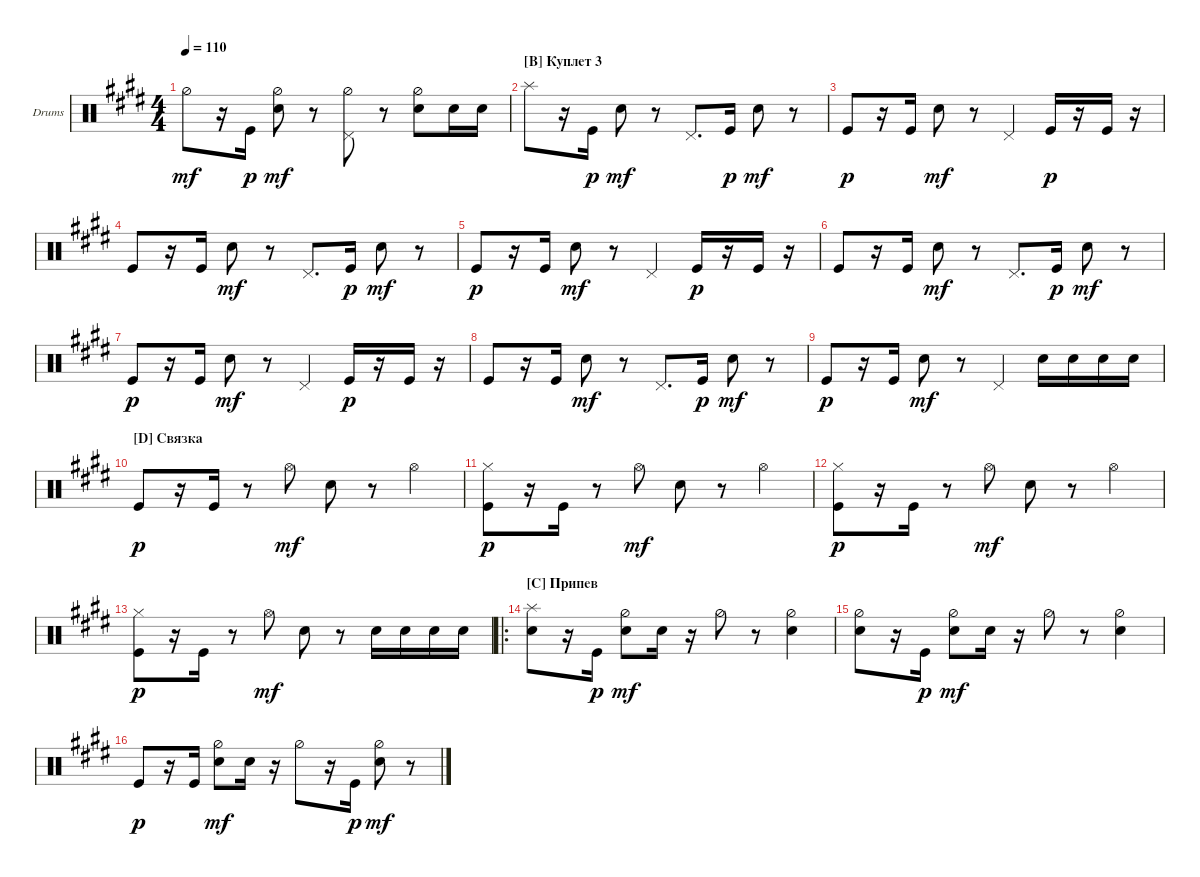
\defaultSystemsLayout 4
\bracketExtendMode groupsimilarinstruments
\firstSystemTrackNameOrientation horizontal
\otherSystemsTrackNameOrientation horizontal
\track ("Drumkit" "Drums") {instrument percussion}
\staff {score}
\articulation defaults
\ts (4 4)
\tempo 110
\clef neutral
\ks c#minor "Hi-Hat (half)".8{dy mf}
r.16 "Kick (hit)".16{dy p} ("Snare (hit) 2" "Hi-Hat (half)").8{dy mf} r.8 ("Pedal Hi-Hat (hit)" "Hi-Hat (half)").8 r.8 ("Snare (hit) 2" "Hi-Hat (half)").8 "Snare (hit) 2".16 "Snare (hit) 2".16 |
\section ("B" "Куплет 3")
"Splash (hit)".8 r.16 "Kick (hit)".16{dy p} "Snare (hit) 2".8{dy mf} r.8 "Pedal Hi-Hat (hit)".8{d} "Kick (hit)".16{dy p} "Snare (hit) 2".8{dy mf} r.8 |
"Kick (hit)".8{dy p} r.16 "Kick (hit)".16 "Snare (hit) 2".8{dy mf} r.8 "Pedal Hi-Hat (hit)".4 "Kick (hit)".16{dy p} r.16 "Kick (hit)".16 r.16 |
"Kick (hit)".8 r.16 "Kick (hit)".16 "Snare (hit) 2".8{dy mf} r.8 "Pedal Hi-Hat (hit)".8{d} "Kick (hit)".16{dy p} "Snare (hit) 2".8{dy mf} r.8 |
"Kick (hit)".8{dy p} r.16 "Kick (hit)".16 "Snare (hit) 2".8{dy mf} r.8 "Pedal Hi-Hat (hit)".4 "Kick (hit)".16{dy p} r.16 "Kick (hit)".16 r.16 |
"Kick (hit)".8 r.16 "Kick (hit)".16 "Snare (hit) 2".8{dy mf} r.8 "Pedal Hi-Hat (hit)".8{d} "Kick (hit)".16{dy p} "Snare (hit) 2".8{dy mf} r.8 |
"Kick (hit)".8{dy p} r.16 "Kick (hit)".16 "Snare (hit) 2".8{dy mf} r.8 "Pedal Hi-Hat (hit)".4 "Kick (hit)".16{dy p} r.16 "Kick (hit)".16 r.16 |
"Kick (hit)".8 r.16 "Kick (hit)".16 "Snare (hit) 2".8{dy mf} r.8 "Pedal Hi-Hat (hit)".8{d} "Kick (hit)".16{dy p} "Snare (hit) 2".8{dy mf} r.8 |
"Kick (hit)".8{dy p} r.16 "Kick (hit)".16 "Snare (hit) 2".8{dy mf} r.8 "Pedal Hi-Hat (hit)".4 "Snare (hit) 2".16 "Snare (hit) 2".16 "Snare (hit) 2".16 "Snare (hit) 2".16 |
\section ("D" "Связка")
"Kick (hit)".8{dy p} r.16 "Kick (hit)".16 r.8 "Hi-Hat (open)".8{dy mf} "Snare (hit) 2".8 r.8 "Hi-Hat (open)".4 |
("Kick (hit)" "Hi-Hat (closed)").8{dy p} r.16 "Kick (hit)".16 r.8 "Hi-Hat (open)".8{dy mf} "Snare (hit) 2".8 r.8 "Hi-Hat (open)".4 |
("Kick (hit)" "Hi-Hat (closed)").8{dy p} r.16 "Kick (hit)".16 r.8 "Hi-Hat (open)".8{dy mf} "Snare (hit) 2".8 r.8 "Hi-Hat (open)".4 |
("Kick (hit)" "Hi-Hat (closed)").8{dy p} r.16 "Kick (hit)".16 r.8 "Hi-Hat (open)".8{dy mf} "Snare (hit) 2".8 r.8 "Snare (hit) 2".16 "Snare (hit) 2".16 "Snare (hit) 2".16 "Snare (hit) 2".16 |
\ro
\section ("C" "Припев")
("Splash (hit)" "Snare (hit) 2").8 r.16 "Kick (hit)".16{dy p} ("Snare (hit) 2" "Hi-Hat (half)").8{dy mf} "Snare (hit) 2".16 r.16 "Hi-Hat (half)".8 r.8 ("Snare (hit) 2" "Hi-Hat (half)").4 |
("Snare (hit) 2" "Hi-Hat (half)").8 r.16 "Kick (hit)".16{dy p} ("Snare (hit) 2" "Hi-Hat (half)").8{dy mf} "Snare (hit) 2".16 r.16 "Hi-Hat (half)".8 r.8 ("Snare (hit) 2" "Hi-Hat (half)").4 |
"Kick (hit)".8{dy p} r.16 "Kick (hit)".16 ("Snare (hit) 2" "Hi-Hat (half)").8{dy mf} "Snare (hit) 2".16 r.16 "Hi-Hat (half)".8 r.16 "Kick (hit)".16{dy p} ("Snare (hit) 2" "Hi-Hat (half)").8{dy mf} r.8
